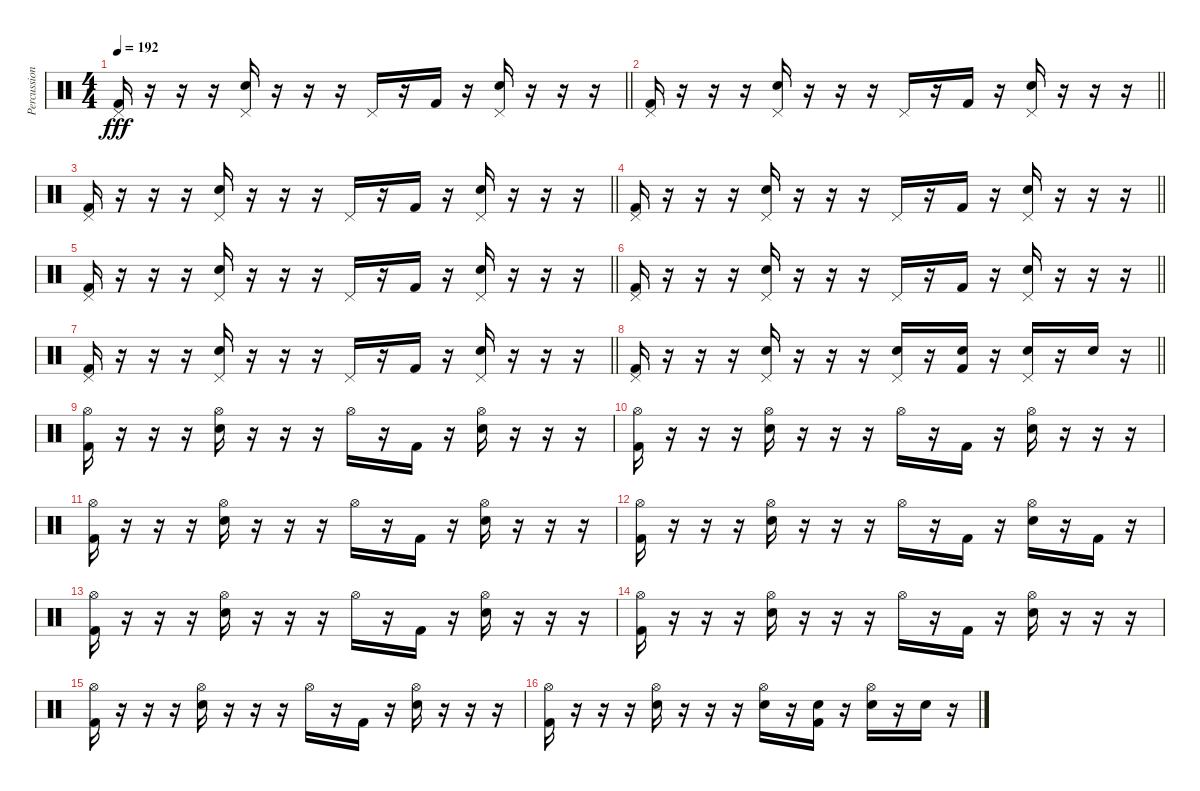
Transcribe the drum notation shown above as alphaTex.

\track ("Percussion" "Percussion") {instrument percussion}
\staff {score}
\articulation defaults
\ts (4 4)
\tempo 192
\clef neutral
\barLineRight lightlight
\ks c
("Pedal Hi-Hat (hit)" "Kick (hit) 2").16{dy fff} r.16 r.16 r.16 ("Pedal Hi-Hat (hit)" "Electric Snare (hit)").16 r.16 r.16 r.16 "Pedal Hi-Hat (hit)".16 r.16 "Kick (hit) 2".16 r.16 ("Pedal Hi-Hat (hit)" "Electric Snare (hit)").16 r.16 r.16 r.16 |
\barLineRight lightlight
("Pedal Hi-Hat (hit)" "Kick (hit) 2").16 r.16 r.16 r.16 ("Pedal Hi-Hat (hit)" "Electric Snare (hit)").16 r.16 r.16 r.16 "Pedal Hi-Hat (hit)".16 r.16 "Kick (hit) 2".16 r.16 ("Pedal Hi-Hat (hit)" "Electric Snare (hit)").16 r.16 r.16 r.16 |
\barLineRight lightlight
("Pedal Hi-Hat (hit)" "Kick (hit) 2").16 r.16 r.16 r.16 ("Pedal Hi-Hat (hit)" "Electric Snare (hit)").16 r.16 r.16 r.16 "Pedal Hi-Hat (hit)".16 r.16 "Kick (hit) 2".16 r.16 ("Pedal Hi-Hat (hit)" "Electric Snare (hit)").16 r.16 r.16 r.16 |
\barLineRight lightlight
("Pedal Hi-Hat (hit)" "Kick (hit) 2").16 r.16 r.16 r.16 ("Pedal Hi-Hat (hit)" "Electric Snare (hit)").16 r.16 r.16 r.16 "Pedal Hi-Hat (hit)".16 r.16 "Kick (hit) 2".16 r.16 ("Pedal Hi-Hat (hit)" "Electric Snare (hit)").16 r.16 r.16 r.16 |
\barLineRight lightlight
("Pedal Hi-Hat (hit)" "Kick (hit) 2").16 r.16 r.16 r.16 ("Pedal Hi-Hat (hit)" "Electric Snare (hit)").16 r.16 r.16 r.16 "Pedal Hi-Hat (hit)".16 r.16 "Kick (hit) 2".16 r.16 ("Pedal Hi-Hat (hit)" "Electric Snare (hit)").16 r.16 r.16 r.16 |
\barLineRight lightlight
("Pedal Hi-Hat (hit)" "Kick (hit) 2").16 r.16 r.16 r.16 ("Pedal Hi-Hat (hit)" "Electric Snare (hit)").16 r.16 r.16 r.16 "Pedal Hi-Hat (hit)".16 r.16 "Kick (hit) 2".16 r.16 ("Pedal Hi-Hat (hit)" "Electric Snare (hit)").16 r.16 r.16 r.16 |
\barLineRight lightlight
("Pedal Hi-Hat (hit)" "Kick (hit) 2").16 r.16 r.16 r.16 ("Pedal Hi-Hat (hit)" "Electric Snare (hit)").16 r.16 r.16 r.16 "Pedal Hi-Hat (hit)".16 r.16 "Kick (hit) 2".16 r.16 ("Pedal Hi-Hat (hit)" "Electric Snare (hit)").16 r.16 r.16 r.16 |
\barLineRight lightlight
("Pedal Hi-Hat (hit)" "Kick (hit) 2").16 r.16 r.16 r.16 ("Pedal Hi-Hat (hit)" "Electric Snare (hit)").16 r.16 r.16 r.16 ("Pedal Hi-Hat (hit)" "Electric Snare (hit)").16 r.16 ("Electric Snare (hit)" "Kick (hit) 2").16 r.16 ("Pedal Hi-Hat (hit)" "Electric Snare (hit)").16 r.16 "Electric Snare (hit)".16 r.16 |
("Hi-Hat (open)" "Kick (hit) 2").16 r.16 r.16 r.16 ("Hi-Hat (open)" "Electric Snare (hit)").16 r.16 r.16 r.16 "Hi-Hat (open)".16 r.16 "Kick (hit) 2".16 r.16 ("Hi-Hat (open)" "Electric Snare (hit)").16 r.16 r.16 r.16 |
("Hi-Hat (open)" "Kick (hit) 2").16 r.16 r.16 r.16 ("Hi-Hat (open)" "Electric Snare (hit)").16 r.16 r.16 r.16 "Hi-Hat (open)".16 r.16 "Kick (hit) 2".16 r.16 ("Hi-Hat (open)" "Electric Snare (hit)").16 r.16 r.16 r.16 |
("Hi-Hat (open)" "Kick (hit) 2").16 r.16 r.16 r.16 ("Hi-Hat (open)" "Electric Snare (hit)").16 r.16 r.16 r.16 "Hi-Hat (open)".16 r.16 "Kick (hit) 2".16 r.16 ("Hi-Hat (open)" "Electric Snare (hit)").16 r.16 r.16 r.16 |
("Hi-Hat (open)" "Kick (hit) 2").16 r.16 r.16 r.16 ("Hi-Hat (open)" "Electric Snare (hit)").16 r.16 r.16 r.16 "Hi-Hat (open)".16 r.16 "Kick (hit) 2".16 r.16 ("Hi-Hat (open)" "Electric Snare (hit)").16 r.16 "Kick (hit) 2".16 r.16 |
("Hi-Hat (open)" "Kick (hit) 2").16 r.16 r.16 r.16 ("Hi-Hat (open)" "Electric Snare (hit)").16 r.16 r.16 r.16 "Hi-Hat (open)".16 r.16 "Kick (hit) 2".16 r.16 ("Hi-Hat (open)" "Electric Snare (hit)").16 r.16 r.16 r.16 |
("Hi-Hat (open)" "Kick (hit) 2").16 r.16 r.16 r.16 ("Hi-Hat (open)" "Electric Snare (hit)").16 r.16 r.16 r.16 "Hi-Hat (open)".16 r.16 "Kick (hit) 2".16 r.16 ("Hi-Hat (open)" "Electric Snare (hit)").16 r.16 r.16 r.16 |
("Hi-Hat (open)" "Kick (hit) 2").16 r.16 r.16 r.16 ("Hi-Hat (open)" "Electric Snare (hit)").16 r.16 r.16 r.16 "Hi-Hat (open)".16 r.16 "Kick (hit) 2".16 r.16 ("Hi-Hat (open)" "Electric Snare (hit)").16 r.16 r.16 r.16 |
("Hi-Hat (open)" "Kick (hit) 2").16 r.16 r.16 r.16 ("Hi-Hat (open)" "Electric Snare (hit)").16 r.16 r.16 r.16 ("Hi-Hat (open)" "Electric Snare (hit)").16 r.16 ("Electric Snare (hit)" "Kick (hit) 2").16 r.16 ("Hi-Hat (open)" "Electric Snare (hit)").16 r.16 "Electric Snare (hit)".16 r.16
